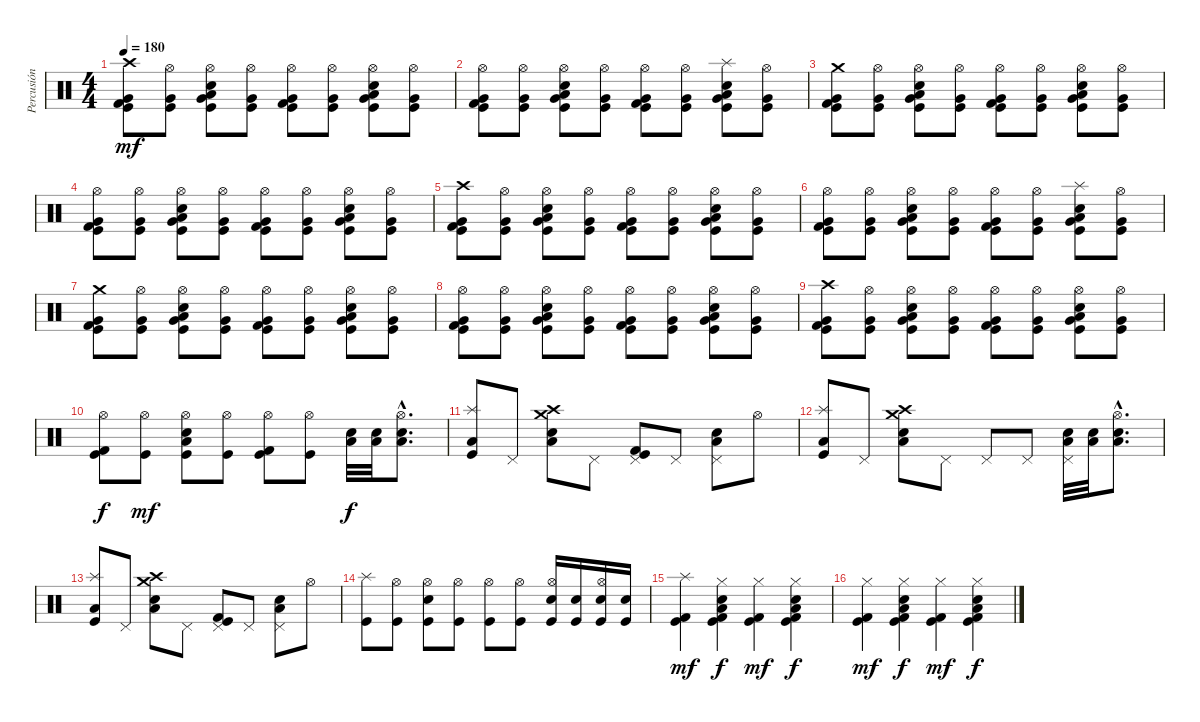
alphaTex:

\track ("Percusión" "Percusión") {instrument percussion}
\staff {score}
\articulation defaults
\ts (4 4)
\tempo 180
\clef neutral
\ks c
("Crash high (hit)" "Very Low Tom (hit)" "Kick (hit) 2" "Kick (hit)").8{dy mf} ("Hi-Hat (open)" "Very Low Tom (hit)" "Kick (hit)").8 ("Hi-Hat (open)" "Electric Snare (hit)" "Low Floor Tom (hit)" "Very Low Tom (hit)" "Kick (hit)").8 ("Hi-Hat (open)" "Very Low Tom (hit)" "Kick (hit)").8 ("Hi-Hat (open)" "Very Low Tom (hit)" "Kick (hit) 2" "Kick (hit)").8 ("Hi-Hat (open)" "Very Low Tom (hit)" "Kick (hit)").8 ("Hi-Hat (open)" "Electric Snare (hit)" "Low Floor Tom (hit)" "Very Low Tom (hit)" "Kick (hit)").8 ("Hi-Hat (open)" "Very Low Tom (hit)" "Kick (hit)").8 |
("Hi-Hat (open)" "Very Low Tom (hit)" "Kick (hit) 2" "Kick (hit)").8 ("Hi-Hat (open)" "Very Low Tom (hit)" "Kick (hit)").8 ("Hi-Hat (open)" "Electric Snare (hit)" "Low Floor Tom (hit)" "Very Low Tom (hit)" "Kick (hit)").8 ("Hi-Hat (open)" "Very Low Tom (hit)" "Kick (hit)").8 ("Hi-Hat (open)" "Very Low Tom (hit)" "Kick (hit) 2" "Kick (hit)").8 ("Hi-Hat (open)" "Very Low Tom (hit)" "Kick (hit)").8 ("Splash (hit)" "Electric Snare (hit)" "Low Floor Tom (hit)" "Very Low Tom (hit)" "Kick (hit)").8 ("Hi-Hat (open)" "Very Low Tom (hit)" "Kick (hit)").8 |
("Crash medium (hit)" "Very Low Tom (hit)" "Kick (hit) 2" "Kick (hit)").8 ("Hi-Hat (open)" "Very Low Tom (hit)" "Kick (hit)").8 ("Hi-Hat (open)" "Electric Snare (hit)" "Low Floor Tom (hit)" "Very Low Tom (hit)" "Kick (hit)").8 ("Hi-Hat (open)" "Very Low Tom (hit)" "Kick (hit)").8 ("Hi-Hat (open)" "Very Low Tom (hit)" "Kick (hit) 2" "Kick (hit)").8 ("Hi-Hat (open)" "Very Low Tom (hit)" "Kick (hit)").8 ("Hi-Hat (open)" "Electric Snare (hit)" "Low Floor Tom (hit)" "Very Low Tom (hit)" "Kick (hit)").8 ("Hi-Hat (open)" "Very Low Tom (hit)" "Kick (hit)").8 |
("Hi-Hat (open)" "Very Low Tom (hit)" "Kick (hit) 2" "Kick (hit)").8 ("Hi-Hat (open)" "Very Low Tom (hit)" "Kick (hit)").8 ("Hi-Hat (open)" "Electric Snare (hit)" "Low Floor Tom (hit)" "Very Low Tom (hit)" "Kick (hit)").8 ("Hi-Hat (open)" "Very Low Tom (hit)" "Kick (hit)").8 ("Hi-Hat (open)" "Very Low Tom (hit)" "Kick (hit) 2" "Kick (hit)").8 ("Hi-Hat (open)" "Very Low Tom (hit)" "Kick (hit)").8 ("Hi-Hat (open)" "Electric Snare (hit)" "Low Floor Tom (hit)" "Very Low Tom (hit)" "Kick (hit)").8 ("Hi-Hat (open)" "Very Low Tom (hit)" "Kick (hit)").8 |
("Crash high (hit)" "Very Low Tom (hit)" "Kick (hit) 2" "Kick (hit)").8 ("Hi-Hat (open)" "Very Low Tom (hit)" "Kick (hit)").8 ("Hi-Hat (open)" "Electric Snare (hit)" "Low Floor Tom (hit)" "Very Low Tom (hit)" "Kick (hit)").8 ("Hi-Hat (open)" "Very Low Tom (hit)" "Kick (hit)").8 ("Hi-Hat (open)" "Very Low Tom (hit)" "Kick (hit) 2" "Kick (hit)").8 ("Hi-Hat (open)" "Very Low Tom (hit)" "Kick (hit)").8 ("Hi-Hat (open)" "Electric Snare (hit)" "Low Floor Tom (hit)" "Very Low Tom (hit)" "Kick (hit)").8 ("Hi-Hat (open)" "Very Low Tom (hit)" "Kick (hit)").8 |
("Hi-Hat (open)" "Very Low Tom (hit)" "Kick (hit) 2" "Kick (hit)").8 ("Hi-Hat (open)" "Very Low Tom (hit)" "Kick (hit)").8 ("Hi-Hat (open)" "Electric Snare (hit)" "Low Floor Tom (hit)" "Very Low Tom (hit)" "Kick (hit)").8 ("Hi-Hat (open)" "Very Low Tom (hit)" "Kick (hit)").8 ("Hi-Hat (open)" "Very Low Tom (hit)" "Kick (hit) 2" "Kick (hit)").8 ("Hi-Hat (open)" "Very Low Tom (hit)" "Kick (hit)").8 ("Splash (hit)" "Electric Snare (hit)" "Low Floor Tom (hit)" "Very Low Tom (hit)" "Kick (hit)").8 ("Hi-Hat (open)" "Very Low Tom (hit)" "Kick (hit)").8 |
("Crash medium (hit)" "Very Low Tom (hit)" "Kick (hit) 2" "Kick (hit)").8 ("Hi-Hat (open)" "Very Low Tom (hit)" "Kick (hit)").8 ("Hi-Hat (open)" "Electric Snare (hit)" "Low Floor Tom (hit)" "Very Low Tom (hit)" "Kick (hit)").8 ("Hi-Hat (open)" "Very Low Tom (hit)" "Kick (hit)").8 ("Hi-Hat (open)" "Very Low Tom (hit)" "Kick (hit) 2" "Kick (hit)").8 ("Hi-Hat (open)" "Very Low Tom (hit)" "Kick (hit)").8 ("Hi-Hat (open)" "Electric Snare (hit)" "Low Floor Tom (hit)" "Very Low Tom (hit)" "Kick (hit)").8 ("Hi-Hat (open)" "Very Low Tom (hit)" "Kick (hit)").8 |
("Hi-Hat (open)" "Very Low Tom (hit)" "Kick (hit) 2" "Kick (hit)").8 ("Hi-Hat (open)" "Very Low Tom (hit)" "Kick (hit)").8 ("Hi-Hat (open)" "Electric Snare (hit)" "Low Floor Tom (hit)" "Very Low Tom (hit)" "Kick (hit)").8 ("Hi-Hat (open)" "Very Low Tom (hit)" "Kick (hit)").8 ("Hi-Hat (open)" "Very Low Tom (hit)" "Kick (hit) 2" "Kick (hit)").8 ("Hi-Hat (open)" "Very Low Tom (hit)" "Kick (hit)").8 ("Hi-Hat (open)" "Electric Snare (hit)" "Low Floor Tom (hit)" "Very Low Tom (hit)" "Kick (hit)").8 ("Hi-Hat (open)" "Very Low Tom (hit)" "Kick (hit)").8 |
("Crash high (hit)" "Very Low Tom (hit)" "Kick (hit) 2" "Kick (hit)").8 ("Hi-Hat (open)" "Very Low Tom (hit)" "Kick (hit)").8 ("Hi-Hat (open)" "Electric Snare (hit)" "Low Floor Tom (hit)" "Very Low Tom (hit)" "Kick (hit)").8 ("Hi-Hat (open)" "Very Low Tom (hit)" "Kick (hit)").8 ("Hi-Hat (open)" "Very Low Tom (hit)" "Kick (hit) 2" "Kick (hit)").8 ("Hi-Hat (open)" "Very Low Tom (hit)" "Kick (hit)").8 ("Hi-Hat (open)" "Electric Snare (hit)" "Low Floor Tom (hit)" "Very Low Tom (hit)" "Kick (hit)").8 ("Hi-Hat (open)" "Very Low Tom (hit)" "Kick (hit)").8 |
("Hi-Hat (open)" "Kick (hit) 2" "Kick (hit)").8{dy f} ("Hi-Hat (open)" "Kick (hit)").8{dy mf} ("Hi-Hat (open)" "Electric Snare (hit)" "Low Tom (hit)" "Kick (hit)").8 ("Hi-Hat (open)" "Kick (hit)").8 ("Hi-Hat (open)" "Kick (hit) 2" "Kick (hit)").8 ("Hi-Hat (open)" "Kick (hit)").8 ("Electric Snare (hit)" "Low Tom (hit)").32{dy f} ("Electric Snare (hit)" "Low Tom (hit)").32 ("Hi-Hat (open)"{hac} "Electric Snare (hit)"{hac} "Low Tom (hit)"{hac}).8{d} |
("Low Tom (hit)" "Kick (hit)" "Splash (hit)").8 "Pedal Hi-Hat (hit)".8 ("Electric Snare (hit)" "Low Tom (hit)" "Crash medium (hit)" "Crash high (hit)").8 "Pedal Hi-Hat (hit)".8 ("Pedal Hi-Hat (hit)" "Kick (hit)" "Kick (hit) 2").8 "Pedal Hi-Hat (hit)".8 ("Pedal Hi-Hat (hit)" "Electric Snare (hit)" "Low Tom (hit)").8 "Hi-Hat (open)".8 |
("Low Tom (hit)" "Kick (hit)" "Splash (hit)").8 "Pedal Hi-Hat (hit)".8 ("Electric Snare (hit)" "Low Tom (hit)" "Crash medium (hit)" "Crash high (hit)").8 "Pedal Hi-Hat (hit)".8 "Pedal Hi-Hat (hit)".8 "Pedal Hi-Hat (hit)".8 ("Pedal Hi-Hat (hit)" "Electric Snare (hit)" "Low Tom (hit)").32 ("Electric Snare (hit)" "Low Tom (hit)").32 ("Hi-Hat (open)"{hac} "Electric Snare (hit)"{hac} "Low Tom (hit)"{hac}).8{d} |
("Low Tom (hit)" "Kick (hit)" "Splash (hit)").8 "Pedal Hi-Hat (hit)".8 ("Electric Snare (hit)" "Low Tom (hit)" "Crash medium (hit)" "Crash high (hit)").8 "Pedal Hi-Hat (hit)".8 ("Pedal Hi-Hat (hit)" "Kick (hit)" "Kick (hit) 2").8 "Pedal Hi-Hat (hit)".8 ("Pedal Hi-Hat (hit)" "Electric Snare (hit)" "Low Tom (hit)").8 "Hi-Hat (open)".8 |
("Splash (hit)" "Kick (hit)").8 ("Hi-Hat (open)" "Kick (hit)").8 ("Hi-Hat (open)" "Electric Snare (hit)" "Kick (hit)").8 ("Hi-Hat (open)" "Kick (hit)").8 ("Hi-Hat (open)" "Kick (hit)").8 ("Hi-Hat (open)" "Kick (hit)").8 ("Hi-Hat (open)" "Electric Snare (hit)" "Kick (hit)").16 ("Electric Snare (hit)" "Kick (hit)").16 ("Hi-Hat (open)" "Electric Snare (hit)" "Kick (hit)").16 ("Electric Snare (hit)" "Kick (hit)").16 |
("Splash (hit)" "Kick (hit) 2" "Kick (hit)").4{dy mf} ("Hi-Hat (closed)" "Electric Snare (hit)" "Low Tom (hit)" "Kick (hit) 2" "Kick (hit)").4{dy f} ("Hi-Hat (closed)" "Kick (hit) 2" "Kick (hit)").4{dy mf} ("Hi-Hat (closed)" "Electric Snare (hit)" "Low Tom (hit)" "Kick (hit) 2" "Kick (hit)").4{dy f} |
("Hi-Hat (closed)" "Kick (hit) 2" "Kick (hit)").4{dy mf} ("Hi-Hat (closed)" "Electric Snare (hit)" "Low Tom (hit)" "Kick (hit) 2" "Kick (hit)").4{dy f} ("Hi-Hat (closed)" "Kick (hit) 2" "Kick (hit)").4{dy mf} ("Hi-Hat (closed)" "Electric Snare (hit)" "Low Tom (hit)" "Kick (hit) 2" "Kick (hit)").4{dy f}
